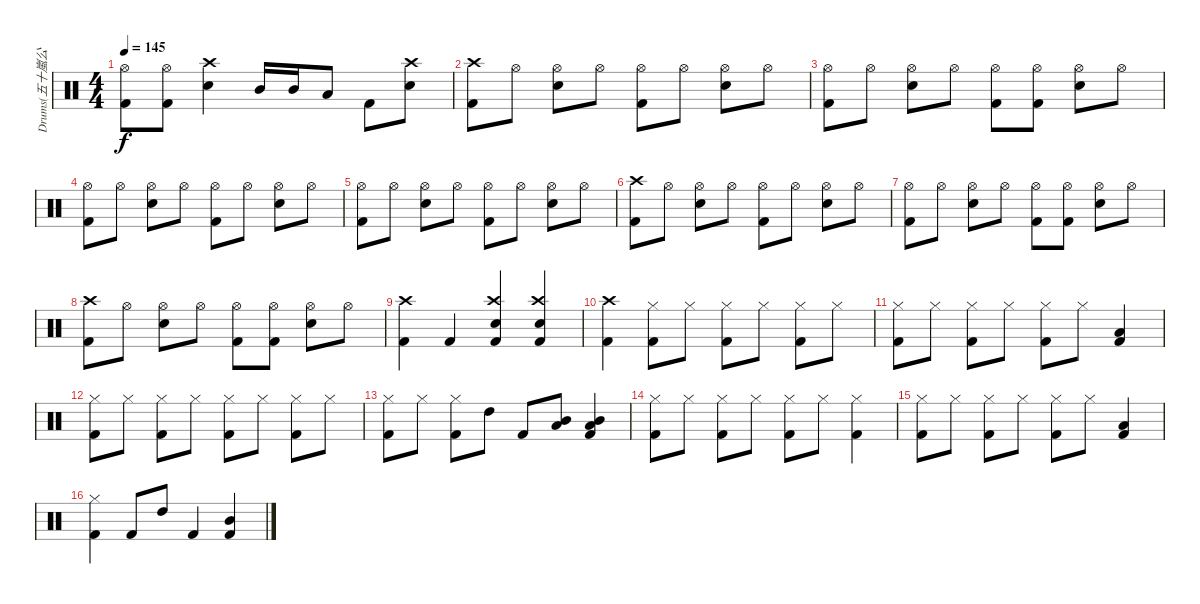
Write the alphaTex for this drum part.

\track ("Drums(五十嵐公太)" "Drums(五十嵐公") {instrument percussion}
\staff {score}
\articulation defaults
\ts (4 4)
\tempo 145
\clef neutral
\ks c
("Hi-Hat (open)" "Kick (hit) 2").8{dy f} ("Hi-Hat (open)" "Kick (hit) 2").8 ("Crash high (hit)" "Snare (hit) 2").4 "Mid Tom (hit)".16 "Mid Tom (hit)".16 "Low Tom (hit)".8 "Kick (hit) 2".8 ("Crash high (hit)" "Snare (hit) 2").8 |
("Crash high (hit)" "Kick (hit) 2").8 "Hi-Hat (open)".8 ("Hi-Hat (open)" "Snare (hit) 2").8 "Hi-Hat (open)".8 ("Hi-Hat (open)" "Kick (hit) 2").8 "Hi-Hat (open)".8 ("Hi-Hat (open)" "Snare (hit) 2").8 "Hi-Hat (open)".8 |
("Hi-Hat (open)" "Kick (hit) 2").8 "Hi-Hat (open)".8 ("Hi-Hat (open)" "Snare (hit) 2").8 "Hi-Hat (open)".8 ("Hi-Hat (open)" "Kick (hit) 2").8 ("Hi-Hat (open)" "Kick (hit) 2").8 ("Hi-Hat (open)" "Snare (hit) 2").8 "Hi-Hat (open)".8 |
("Hi-Hat (open)" "Kick (hit) 2").8 "Hi-Hat (open)".8 ("Hi-Hat (open)" "Snare (hit) 2").8 "Hi-Hat (open)".8 ("Hi-Hat (open)" "Kick (hit) 2").8 "Hi-Hat (open)".8 ("Hi-Hat (open)" "Snare (hit) 2").8 "Hi-Hat (open)".8 |
("Hi-Hat (open)" "Kick (hit) 2").8 "Hi-Hat (open)".8 ("Hi-Hat (open)" "Snare (hit) 2").8 "Hi-Hat (open)".8 ("Hi-Hat (open)" "Kick (hit) 2").8 "Hi-Hat (open)".8 ("Hi-Hat (open)" "Snare (hit) 2").8 "Hi-Hat (open)".8 |
("Crash high (hit)" "Kick (hit) 2").8 "Hi-Hat (open)".8 ("Hi-Hat (open)" "Snare (hit) 2").8 "Hi-Hat (open)".8 ("Hi-Hat (open)" "Kick (hit) 2").8 "Hi-Hat (open)".8 ("Hi-Hat (open)" "Snare (hit) 2").8 "Hi-Hat (open)".8 |
("Hi-Hat (open)" "Kick (hit) 2").8 "Hi-Hat (open)".8 ("Hi-Hat (open)" "Snare (hit) 2").8 "Hi-Hat (open)".8 ("Hi-Hat (open)" "Kick (hit) 2").8 ("Hi-Hat (open)" "Kick (hit) 2").8 ("Hi-Hat (open)" "Snare (hit) 2").8 "Hi-Hat (open)".8 |
("Crash high (hit)" "Kick (hit) 2").8 "Hi-Hat (open)".8 ("Hi-Hat (open)" "Snare (hit) 2").8 "Hi-Hat (open)".8 ("Hi-Hat (open)" "Kick (hit) 2").8 ("Hi-Hat (open)" "Kick (hit) 2").8 ("Hi-Hat (open)" "Snare (hit) 2").8 "Hi-Hat (open)".8 |
("Crash high (hit)" "Kick (hit) 2").4 "Kick (hit) 2".4 ("Crash high (hit)" "Snare (hit) 2" "Kick (hit) 2").4 ("Crash high (hit)" "Snare (hit) 2" "Kick (hit) 2").4 |
("Crash high (hit)" "Kick (hit) 2").4 ("Hi-Hat (closed)" "Kick (hit) 2").8 "Hi-Hat (closed)".8 ("Hi-Hat (closed)" "Kick (hit) 2").8 "Hi-Hat (closed)".8 ("Hi-Hat (closed)" "Kick (hit) 2").8 "Hi-Hat (closed)".8 |
("Hi-Hat (closed)" "Kick (hit) 2").8 "Hi-Hat (closed)".8 ("Hi-Hat (closed)" "Kick (hit) 2").8 "Hi-Hat (closed)".8 ("Hi-Hat (closed)" "Kick (hit) 2").8 "Hi-Hat (closed)".8 ("Low Tom (hit)" "Kick (hit) 2").4 |
("Hi-Hat (closed)" "Kick (hit) 2").8 "Hi-Hat (closed)".8 ("Hi-Hat (closed)" "Kick (hit) 2").8 "Hi-Hat (closed)".8 ("Hi-Hat (closed)" "Kick (hit) 2").8 "Hi-Hat (closed)".8 ("Hi-Hat (closed)" "Kick (hit) 2").8 "Hi-Hat (closed)".8 |
("Hi-Hat (closed)" "Kick (hit) 2").8 "Hi-Hat (closed)".8 ("Hi-Hat (closed)" "Kick (hit) 2").8 "High Tom (hit)".8 "Kick (hit) 2".8 ("Mid Tom (hit)" "Low Tom (hit)").8 ("Mid Tom (hit)" "Low Tom (hit)" "Kick (hit) 2").4 |
("Hi-Hat (closed)" "Kick (hit) 2").8 "Hi-Hat (closed)".8 ("Hi-Hat (closed)" "Kick (hit) 2").8 "Hi-Hat (closed)".8 ("Hi-Hat (closed)" "Kick (hit) 2").8 "Hi-Hat (closed)".8 ("Hi-Hat (closed)" "Kick (hit) 2").4 |
("Hi-Hat (closed)" "Kick (hit) 2").8 "Hi-Hat (closed)".8 ("Hi-Hat (closed)" "Kick (hit) 2").8 "Hi-Hat (closed)".8 ("Hi-Hat (closed)" "Kick (hit) 2").8 "Hi-Hat (closed)".8 ("Low Tom (hit)" "Kick (hit) 2").4 |
("Hi-Hat (closed)" "Kick (hit) 2").4 "Kick (hit) 2".8 "High Tom (hit)".8 "Kick (hit) 2".4 ("Mid Tom (hit)" "Kick (hit) 2").4
